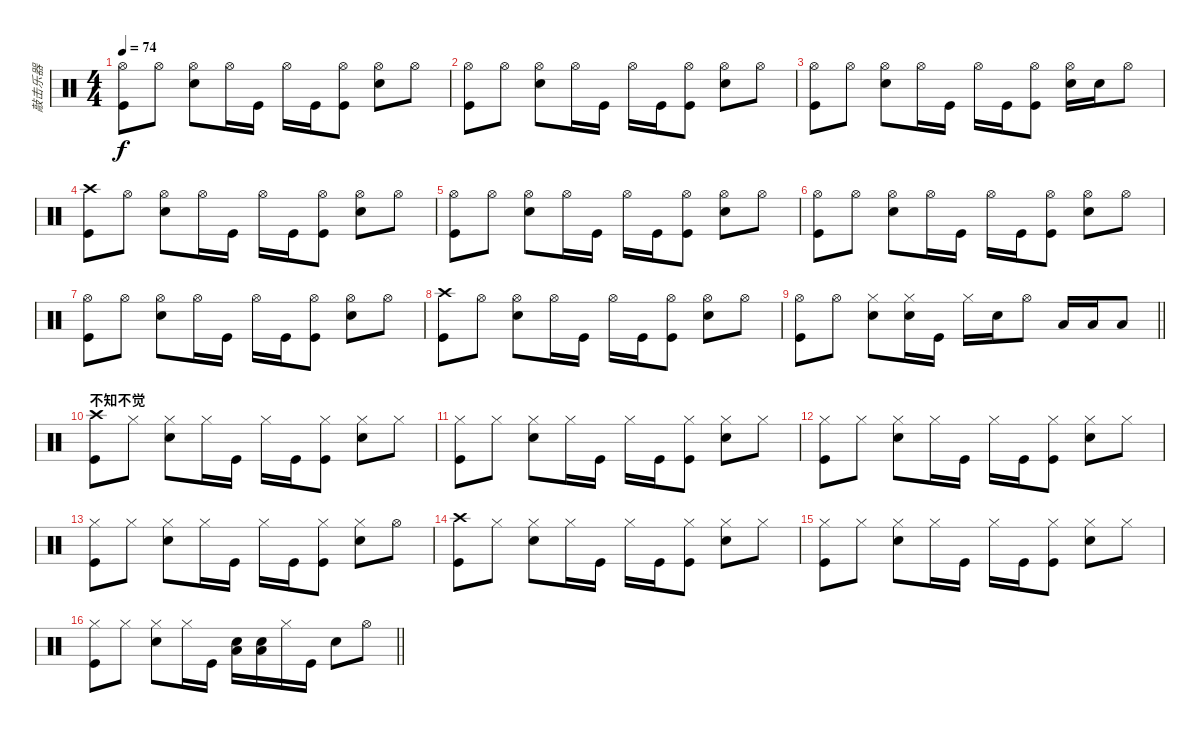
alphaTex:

\track ("敲击乐器" "敲击乐器") {instrument percussion}
\staff {score}
\articulation defaults
\ts (4 4)
\tempo 74
\clef neutral
\ks c
("Hi-Hat (open)" "Kick (hit)").8{dy f} "Hi-Hat (open)".8 ("Hi-Hat (open)" "Snare (hit) 2").8 "Hi-Hat (open)".16 "Kick (hit)".16 "Hi-Hat (open)".16 "Kick (hit)".16 ("Hi-Hat (open)" "Kick (hit)").8 ("Hi-Hat (open)" "Snare (hit) 2").8 "Hi-Hat (open)".8 |
("Hi-Hat (open)" "Kick (hit)").8 "Hi-Hat (open)".8 ("Hi-Hat (open)" "Snare (hit) 2").8 "Hi-Hat (open)".16 "Kick (hit)".16 "Hi-Hat (open)".16 "Kick (hit)".16 ("Hi-Hat (open)" "Kick (hit)").8 ("Hi-Hat (open)" "Snare (hit) 2").8 "Hi-Hat (open)".8 |
("Hi-Hat (open)" "Kick (hit)").8 "Hi-Hat (open)".8 ("Hi-Hat (open)" "Snare (hit) 2").8 "Hi-Hat (open)".16 "Kick (hit)".16 "Hi-Hat (open)".16 "Kick (hit)".16 ("Hi-Hat (open)" "Kick (hit)").8 ("Hi-Hat (open)" "Snare (hit) 2").16 "Snare (hit) 2".16 "Hi-Hat (open)".8 |
("Crash high (hit)" "Kick (hit)").8 "Hi-Hat (open)".8 ("Hi-Hat (open)" "Snare (hit) 2").8 "Hi-Hat (open)".16 "Kick (hit)".16 "Hi-Hat (open)".16 "Kick (hit)".16 ("Hi-Hat (open)" "Kick (hit)").8 ("Hi-Hat (open)" "Snare (hit) 2").8 "Hi-Hat (open)".8 |
("Hi-Hat (open)" "Kick (hit)").8 "Hi-Hat (open)".8 ("Hi-Hat (open)" "Snare (hit) 2").8 "Hi-Hat (open)".16 "Kick (hit)".16 "Hi-Hat (open)".16 "Kick (hit)".16 ("Hi-Hat (open)" "Kick (hit)").8 ("Hi-Hat (open)" "Snare (hit) 2").8 "Hi-Hat (open)".8 |
("Hi-Hat (open)" "Kick (hit)").8 "Hi-Hat (open)".8 ("Hi-Hat (open)" "Snare (hit) 2").8 "Hi-Hat (open)".16 "Kick (hit)".16 "Hi-Hat (open)".16 "Kick (hit)".16 ("Hi-Hat (open)" "Kick (hit)").8 ("Hi-Hat (open)" "Snare (hit) 2").8 "Hi-Hat (open)".8 |
("Hi-Hat (open)" "Kick (hit)").8 "Hi-Hat (open)".8 ("Hi-Hat (open)" "Snare (hit) 2").8 "Hi-Hat (open)".16 "Kick (hit)".16 "Hi-Hat (open)".16 "Kick (hit)".16 ("Hi-Hat (open)" "Kick (hit)").8 ("Hi-Hat (open)" "Snare (hit) 2").8 "Hi-Hat (open)".8 |
("Crash high (hit)" "Kick (hit)").8 "Hi-Hat (open)".8 ("Hi-Hat (open)" "Snare (hit) 2").8 "Hi-Hat (open)".16 "Kick (hit)".16 "Hi-Hat (open)".16 "Kick (hit)".16 ("Hi-Hat (open)" "Kick (hit)").8 ("Hi-Hat (open)" "Snare (hit) 2").8 "Hi-Hat (open)".8 |
\barLineRight lightlight
("Hi-Hat (open)" "Kick (hit)").8 "Hi-Hat (open)".8 ("Hi-Hat (closed)" "Snare (hit) 2").8 ("Hi-Hat (closed)" "Snare (hit) 2").16 "Kick (hit)".16 "Hi-Hat (closed)".16 "Snare (hit) 2".16 "Hi-Hat (open)".8 "Low Tom (hit)".16 "Low Tom (hit)".16 "Low Floor Tom (hit)".8 |
\section ("" "不知不觉")
("Crash high (hit)" "Kick (hit)").8 "Hi-Hat (closed)".8 ("Hi-Hat (closed)" "Snare (hit) 2").8 "Hi-Hat (closed)".16 "Kick (hit)".16 "Hi-Hat (closed)".16 "Kick (hit)".16 ("Hi-Hat (closed)" "Kick (hit)").8 ("Hi-Hat (closed)" "Snare (hit) 2").8 "Hi-Hat (closed)".8 |
("Hi-Hat (closed)" "Kick (hit)").8 "Hi-Hat (closed)".8 ("Hi-Hat (closed)" "Snare (hit) 2").8 "Hi-Hat (closed)".16 "Kick (hit)".16 "Hi-Hat (closed)".16 "Kick (hit)".16 ("Hi-Hat (closed)" "Kick (hit)").8 ("Hi-Hat (closed)" "Snare (hit) 2").8 "Hi-Hat (closed)".8 |
("Hi-Hat (closed)" "Kick (hit)").8 "Hi-Hat (closed)".8 ("Hi-Hat (closed)" "Snare (hit) 2").8 "Hi-Hat (closed)".16 "Kick (hit)".16 "Hi-Hat (closed)".16 "Kick (hit)".16 ("Hi-Hat (closed)" "Kick (hit)").8 ("Hi-Hat (closed)" "Snare (hit) 2").8 "Hi-Hat (closed)".8 |
("Hi-Hat (closed)" "Kick (hit)").8 "Hi-Hat (closed)".8 ("Hi-Hat (closed)" "Snare (hit) 2").8 "Hi-Hat (closed)".16 "Kick (hit)".16 "Hi-Hat (closed)".16 "Kick (hit)".16 ("Hi-Hat (closed)" "Kick (hit)").8 ("Hi-Hat (closed)" "Snare (hit) 2").8 "Hi-Hat (open)".8 |
("Crash high (hit)" "Kick (hit)").8 "Hi-Hat (closed)".8 ("Hi-Hat (closed)" "Snare (hit) 2").8 "Hi-Hat (closed)".16 "Kick (hit)".16 "Hi-Hat (closed)".16 "Kick (hit)".16 ("Hi-Hat (closed)" "Kick (hit)").8 ("Hi-Hat (closed)" "Snare (hit) 2").8 "Hi-Hat (closed)".8 |
("Hi-Hat (closed)" "Kick (hit)").8 "Hi-Hat (closed)".8 ("Hi-Hat (closed)" "Snare (hit) 2").8 "Hi-Hat (closed)".16 "Kick (hit)".16 "Hi-Hat (closed)".16 "Kick (hit)".16 ("Hi-Hat (closed)" "Kick (hit)").8 ("Hi-Hat (closed)" "Snare (hit) 2").8 "Hi-Hat (closed)".8 |
\barLineRight lightlight
("Hi-Hat (closed)" "Kick (hit)").8 "Hi-Hat (closed)".8 ("Hi-Hat (closed)" "Snare (hit) 2").8 "Hi-Hat (closed)".16 "Kick (hit)".16 ("Snare (hit) 2" "Low Floor Tom (hit)").16 ("Snare (hit) 2" "Low Floor Tom (hit)").16 "Hi-Hat (closed)".16 "Kick (hit)".16 "Snare (hit) 2".8 "Hi-Hat (open)".8
